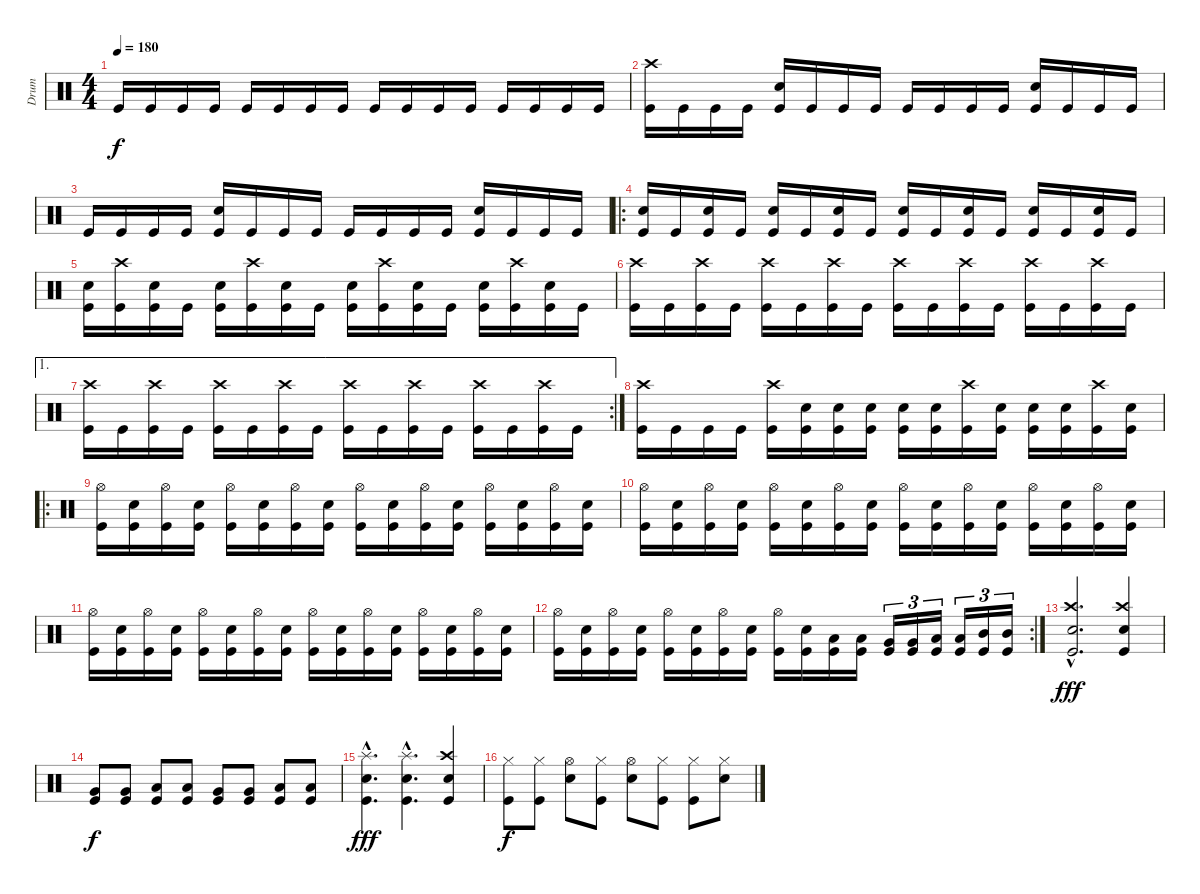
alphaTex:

\track ("Drum" "Drum") {instrument percussion}
\staff {score}
\articulation defaults
\ts (4 4)
\tempo 180
\clef neutral
\ks c "Kick (hit)".16{dy f} "Kick (hit)".16 "Kick (hit)".16 "Kick (hit)".16 "Kick (hit)".16 "Kick (hit)".16 "Kick (hit)".16 "Kick (hit)".16 "Kick (hit)".16 "Kick (hit)".16 "Kick (hit)".16 "Kick (hit)".16 "Kick (hit)".16 "Kick (hit)".16 "Kick (hit)".16 "Kick (hit)".16
|
("Crash high (hit)" "Kick (hit)").16 "Kick (hit)".16 "Kick (hit)".16 "Kick (hit)".16 ("Electric Snare (hit)" "Kick (hit)").16 "Kick (hit)".16 "Kick (hit)".16 "Kick (hit)".16 "Kick (hit)".16 "Kick (hit)".16 "Kick (hit)".16 "Kick (hit)".16 ("Electric Snare (hit)" "Kick (hit)").16 "Kick (hit)".16 "Kick (hit)".16 "Kick (hit)".16 |
"Kick (hit)".16 "Kick (hit)".16 "Kick (hit)".16 "Kick (hit)".16 ("Electric Snare (hit)" "Kick (hit)").16 "Kick (hit)".16 "Kick (hit)".16 "Kick (hit)".16 "Kick (hit)".16 "Kick (hit)".16 "Kick (hit)".16 "Kick (hit)".16 ("Electric Snare (hit)" "Kick (hit)").16 "Kick (hit)".16 "Kick (hit)".16 "Kick (hit)".16 |
\ro
("Electric Snare (hit)" "Kick (hit)").16 "Kick (hit)".16 ("Electric Snare (hit)" "Kick (hit)").16 "Kick (hit)".16 ("Electric Snare (hit)" "Kick (hit)").16 "Kick (hit)".16 ("Electric Snare (hit)" "Kick (hit)").16 "Kick (hit)".16 ("Electric Snare (hit)" "Kick (hit)").16 "Kick (hit)".16 ("Electric Snare (hit)" "Kick (hit)").16 "Kick (hit)".16 ("Electric Snare (hit)" "Kick (hit)").16 "Kick (hit)".16 ("Electric Snare (hit)" "Kick (hit)").16 "Kick (hit)".16 |
("Electric Snare (hit)" "Kick (hit)").16 ("Crash high (hit)" "Kick (hit)").16 ("Electric Snare (hit)" "Kick (hit)").16 "Kick (hit)".16 ("Electric Snare (hit)" "Kick (hit)").16 ("Crash high (hit)" "Kick (hit)").16 ("Electric Snare (hit)" "Kick (hit)").16 "Kick (hit)".16 ("Electric Snare (hit)" "Kick (hit)").16 ("Crash high (hit)" "Kick (hit)").16 ("Electric Snare (hit)" "Kick (hit)").16 "Kick (hit)".16 ("Electric Snare (hit)" "Kick (hit)").16 ("Crash high (hit)" "Kick (hit)").16 ("Electric Snare (hit)" "Kick (hit)").16 "Kick (hit)".16 |
("Crash high (hit)" "Kick (hit)").16 "Kick (hit)".16 ("Crash high (hit)" "Kick (hit)").16 "Kick (hit)".16 ("Crash high (hit)" "Kick (hit)").16 "Kick (hit)".16 ("Crash high (hit)" "Kick (hit)").16 "Kick (hit)".16 ("Crash high (hit)" "Kick (hit)").16 "Kick (hit)".16 ("Crash high (hit)" "Kick (hit)").16 "Kick (hit)".16 ("Crash high (hit)" "Kick (hit)").16 "Kick (hit)".16 ("Crash high (hit)" "Kick (hit)").16 "Kick (hit)".16 |
\ae 1
\rc 2
("Crash high (hit)" "Kick (hit)").16 "Kick (hit)".16 ("Crash high (hit)" "Kick (hit)").16 "Kick (hit)".16 ("Crash high (hit)" "Kick (hit)").16 "Kick (hit)".16 ("Crash high (hit)" "Kick (hit)").16 "Kick (hit)".16 ("Crash high (hit)" "Kick (hit)").16 "Kick (hit)".16 ("Crash high (hit)" "Kick (hit)").16 "Kick (hit)".16 ("Crash high (hit)" "Kick (hit)").16 "Kick (hit)".16 ("Crash high (hit)" "Kick (hit)").16 "Kick (hit)".16 |
("Crash high (hit)" "Kick (hit)").16 "Kick (hit)".16 "Kick (hit)".16 "Kick (hit)".16 ("Crash high (hit)" "Kick (hit)").16 ("Electric Snare (hit)" "Kick (hit)").16 ("Electric Snare (hit)" "Kick (hit)").16 ("Electric Snare (hit)" "Kick (hit)").16 ("Electric Snare (hit)" "Kick (hit)").16 ("Electric Snare (hit)" "Kick (hit)").16 ("Crash high (hit)" "Kick (hit)").16 ("Electric Snare (hit)" "Kick (hit)").16 ("Electric Snare (hit)" "Kick (hit)").16 ("Electric Snare (hit)" "Kick (hit)").16 ("Crash high (hit)" "Kick (hit)").16 ("Electric Snare (hit)" "Kick (hit)").16 |
\ro
("Hi-Hat (open)" "Kick (hit)").16 ("Electric Snare (hit)" "Kick (hit)").16 ("Hi-Hat (open)" "Kick (hit)").16 ("Electric Snare (hit)" "Kick (hit)").16 ("Hi-Hat (open)" "Kick (hit)").16 ("Electric Snare (hit)" "Kick (hit)").16 ("Hi-Hat (open)" "Kick (hit)").16 ("Electric Snare (hit)" "Kick (hit)").16 ("Hi-Hat (open)" "Kick (hit)").16 ("Electric Snare (hit)" "Kick (hit)").16 ("Hi-Hat (open)" "Kick (hit)").16 ("Electric Snare (hit)" "Kick (hit)").16 ("Hi-Hat (open)" "Kick (hit)").16 ("Electric Snare (hit)" "Kick (hit)").16 ("Hi-Hat (open)" "Kick (hit)").16 ("Electric Snare (hit)" "Kick (hit)").16 |
("Hi-Hat (open)" "Kick (hit)").16 ("Electric Snare (hit)" "Kick (hit)").16 ("Hi-Hat (open)" "Kick (hit)").16 ("Electric Snare (hit)" "Kick (hit)").16 ("Hi-Hat (open)" "Kick (hit)").16 ("Electric Snare (hit)" "Kick (hit)").16 ("Hi-Hat (open)" "Kick (hit)").16 ("Electric Snare (hit)" "Kick (hit)").16 ("Hi-Hat (open)" "Kick (hit)").16 ("Electric Snare (hit)" "Kick (hit)").16 ("Hi-Hat (open)" "Kick (hit)").16 ("Electric Snare (hit)" "Kick (hit)").16 ("Hi-Hat (open)" "Kick (hit)").16 ("Electric Snare (hit)" "Kick (hit)").16 ("Hi-Hat (open)" "Kick (hit)").16 ("Electric Snare (hit)" "Kick (hit)").16 |
("Hi-Hat (open)" "Kick (hit)").16 ("Electric Snare (hit)" "Kick (hit)").16 ("Hi-Hat (open)" "Kick (hit)").16 ("Electric Snare (hit)" "Kick (hit)").16 ("Hi-Hat (open)" "Kick (hit)").16 ("Electric Snare (hit)" "Kick (hit)").16 ("Hi-Hat (open)" "Kick (hit)").16 ("Electric Snare (hit)" "Kick (hit)").16 ("Hi-Hat (open)" "Kick (hit)").16 ("Electric Snare (hit)" "Kick (hit)").16 ("Hi-Hat (open)" "Kick (hit)").16 ("Electric Snare (hit)" "Kick (hit)").16 ("Hi-Hat (open)" "Kick (hit)").16 ("Electric Snare (hit)" "Kick (hit)").16 ("Hi-Hat (open)" "Kick (hit)").16 ("Electric Snare (hit)" "Kick (hit)").16 |
\rc 2
("Hi-Hat (open)" "Kick (hit)").16 ("Electric Snare (hit)" "Kick (hit)").16 ("Hi-Hat (open)" "Kick (hit)").16 ("Electric Snare (hit)" "Kick (hit)").16 ("Hi-Hat (open)" "Kick (hit)").16 ("Electric Snare (hit)" "Kick (hit)").16 ("Hi-Hat (open)" "Kick (hit)").16 ("Electric Snare (hit)" "Kick (hit)").16 ("Hi-Hat (open)" "Kick (hit)").16 ("Electric Snare (hit)" "Kick (hit)").16 ("Low Floor Tom (hit)" "Kick (hit)").16 ("Low Floor Tom (hit)" "Kick (hit)").16 ("Very Low Tom (hit)" "Kick (hit)").16{tu (3 2)} ("Very Low Tom (hit)" "Kick (hit)").16{tu (3 2)} ("Low Tom (hit)" "Kick (hit)").16{tu (3 2)} ("Low Tom (hit)" "Kick (hit)").16{tu (3 2)} ("Mid Tom (hit)" "Kick (hit)").16{tu (3 2)} ("Mid Tom (hit)" "Kick (hit)").16{tu (3 2)} |
("Crash high (hit)"{hac} "Electric Snare (hit)"{hac} "Kick (hit)"{hac}).2{d dy fff} ("Crash high (hit)" "Electric Snare (hit)" "Kick (hit)").4 |
("Very Low Tom (hit)" "Kick (hit)").8{dy f} ("Very Low Tom (hit)" "Kick (hit)").8 ("Low Floor Tom (hit)" "Kick (hit)").8 ("Low Floor Tom (hit)" "Kick (hit)").8 ("Very Low Tom (hit)" "Kick (hit)").8 ("Very Low Tom (hit)" "Kick (hit)").8 ("Low Tom (hit)" "Kick (hit)").8 ("Low Tom (hit)" "Kick (hit)").8 |
("Splash (hit)"{hac} "Electric Snare (hit)"{hac} "Kick (hit)"{hac}).4{d dy fff} ("Splash (hit)"{hac} "Electric Snare (hit)"{hac} "Kick (hit)"{hac}).4{d} ("Crash high (hit)" "Electric Snare (hit)" "Kick (hit)").4 |
("Hi-Hat (closed)" "Kick (hit)").8{dy f} ("Hi-Hat (closed)" "Kick (hit)").8 ("Hi-Hat (open)" "Electric Snare (hit)").8 ("Hi-Hat (closed)" "Kick (hit)").8 ("Hi-Hat (open)" "Electric Snare (hit)").8 ("Hi-Hat (closed)" "Kick (hit)").8 ("Hi-Hat (closed)" "Kick (hit)").8 ("Hi-Hat (closed)" "Electric Snare (hit)").8
